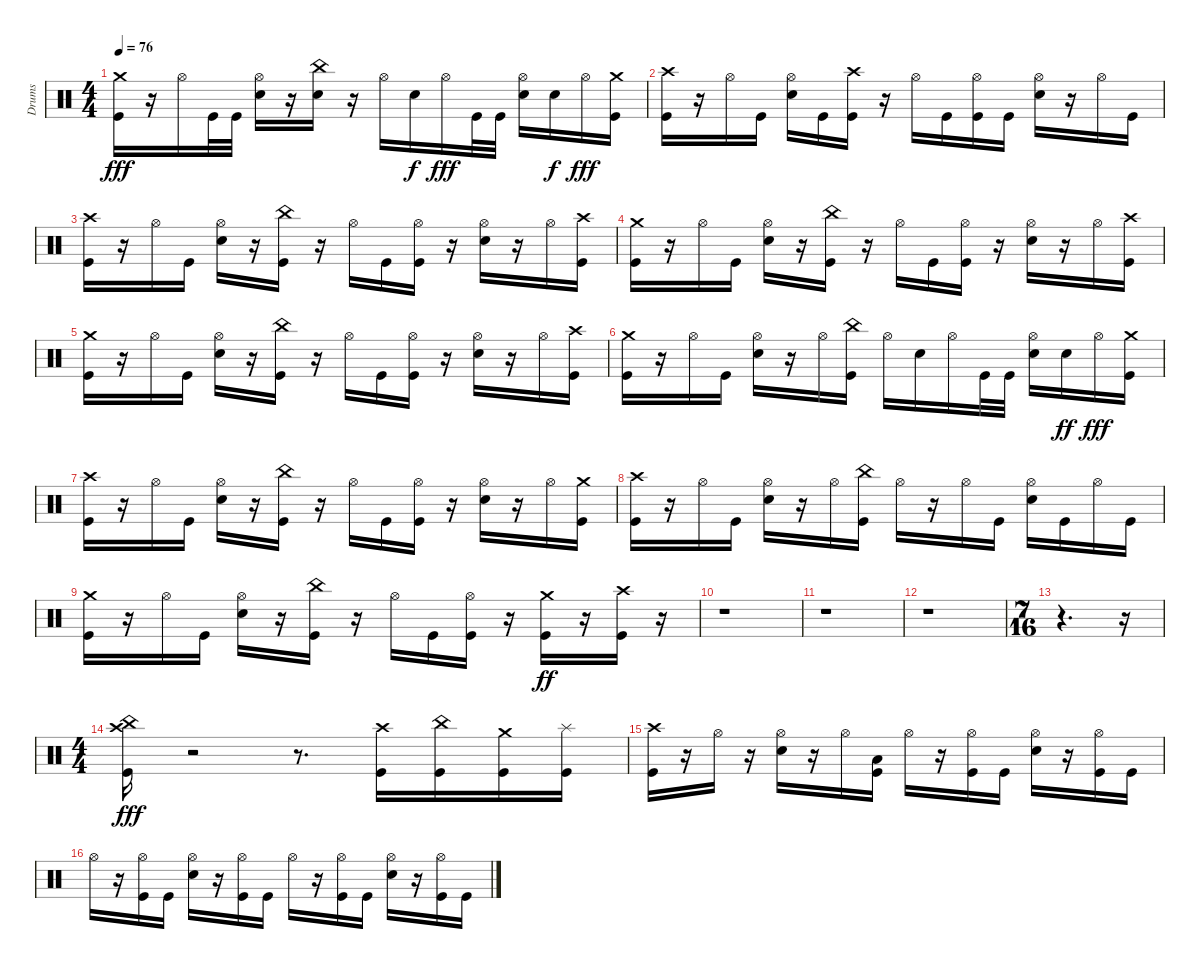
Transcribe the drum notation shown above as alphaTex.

\track ("Drums" "Drums") {instrument percussion}
\staff {score}
\articulation defaults
\ts (4 4)
\tempo 76
\clef neutral
\ks c
("Kick (hit)" "Crash medium (hit)").16{dy fff} r.16 "Hi-Hat (open)".16 "Kick (hit)".32 "Kick (hit)".32 ("Electric Snare (hit)" "Hi-Hat (open)").16 r.16 ("China (hit)" "Electric Snare (hit)").16 r.16 "Hi-Hat (open)".16 "Electric Snare (hit)".16{dy f} "Hi-Hat (open)".16{dy fff} "Kick (hit)".32 "Kick (hit)".32 ("Electric Snare (hit)" "Hi-Hat (open)").16 "Electric Snare (hit)".16{dy f} "Hi-Hat (open)".16{dy fff} ("Crash medium (hit)" "Kick (hit)").16 |
("Crash high (hit)" "Kick (hit)").16 r.16 "Hi-Hat (open)".16 "Kick (hit)".16 ("Hi-Hat (open)" "Electric Snare (hit)").16 "Kick (hit)".16 ("Kick (hit)" "Crash high (hit)").16 r.16 "Hi-Hat (open)".16 "Kick (hit)".16 ("Hi-Hat (open)" "Kick (hit)").16 "Kick (hit)".16 ("Hi-Hat (open)" "Electric Snare (hit)").16 r.16 "Hi-Hat (open)".16 "Kick (hit)".16 |
("Crash high (hit)" "Kick (hit)").16 r.16 "Hi-Hat (open)".16 "Kick (hit)".16 ("Hi-Hat (open)" "Electric Snare (hit)").16 r.16 ("China (hit)" "Kick (hit)").16 r.16 "Hi-Hat (open)".16 "Kick (hit)".16 ("Hi-Hat (open)" "Kick (hit)").16 r.16 ("Hi-Hat (open)" "Electric Snare (hit)").16 r.16 "Hi-Hat (open)".16 ("Crash high (hit)" "Kick (hit)").16 |
("Crash medium (hit)" "Kick (hit)").16 r.16 "Hi-Hat (open)".16 "Kick (hit)".16 ("Electric Snare (hit)" "Hi-Hat (open)").16 r.16 ("Kick (hit)" "China (hit)").16 r.16 "Hi-Hat (open)".16 "Kick (hit)".16 ("Kick (hit)" "Hi-Hat (open)").16 r.16 ("Electric Snare (hit)" "Hi-Hat (open)").16 r.16 "Hi-Hat (open)".16 ("Crash high (hit)" "Kick (hit)").16 |
("Crash medium (hit)" "Kick (hit)").16 r.16 "Hi-Hat (open)".16 "Kick (hit)".16 ("Electric Snare (hit)" "Hi-Hat (open)").16 r.16 ("Kick (hit)" "China (hit)").16 r.16 "Hi-Hat (open)".16 "Kick (hit)".16 ("Kick (hit)" "Hi-Hat (open)").16 r.16 ("Electric Snare (hit)" "Hi-Hat (open)").16 r.16 "Hi-Hat (open)".16 ("Kick (hit)" "Crash high (hit)").16 |
("Crash medium (hit)" "Kick (hit)").16 r.16 "Hi-Hat (open)".16 "Kick (hit)".16 ("Electric Snare (hit)" "Hi-Hat (open)").16 r.16 "Hi-Hat (open)".16 ("China (hit)" "Kick (hit)").16 "Hi-Hat (open)".16 "Electric Snare (hit)".16 "Hi-Hat (open)".16 "Kick (hit)".32 "Kick (hit)".32 ("Electric Snare (hit)" "Hi-Hat (open)").16 "Electric Snare (hit)".16{dy ff} "Hi-Hat (open)".16{dy fff} ("Crash medium (hit)" "Kick (hit)").16 |
("Kick (hit)" "Crash high (hit)").16 r.16 "Hi-Hat (open)".16 "Kick (hit)".16 ("Electric Snare (hit)" "Hi-Hat (open)").16 r.16 ("Kick (hit)" "China (hit)").16 r.16 "Hi-Hat (open)".16 "Kick (hit)".16 ("Kick (hit)" "Hi-Hat (open)").16 r.16 ("Electric Snare (hit)" "Hi-Hat (open)").16 r.16 "Hi-Hat (open)".16 ("Crash medium (hit)" "Kick (hit)").16 |
("Kick (hit)" "Crash high (hit)").16 r.16 "Hi-Hat (open)".16 "Kick (hit)".16 ("Electric Snare (hit)" "Hi-Hat (open)").16 r.16 "Hi-Hat (open)".16 ("Kick (hit)" "China (hit)").16 "Hi-Hat (open)".16 r.16 "Hi-Hat (open)".16 "Kick (hit)".16 ("Electric Snare (hit)" "Hi-Hat (open)").16 "Kick (hit)".16 "Hi-Hat (open)".16 "Kick (hit)".16 |
("Kick (hit)" "Crash medium (hit)").16 r.16 "Hi-Hat (open)".16 "Kick (hit)".16 ("Electric Snare (hit)" "Hi-Hat (open)").16 r.16 ("Kick (hit)" "China (hit)").16 r.16 "Hi-Hat (open)".16 "Kick (hit)".16 ("Kick (hit)" "Hi-Hat (open)").16 r.16 ("Crash medium (hit)" "Kick (hit)").16{dy ff} r.16 ("Crash high (hit)" "Kick (hit)").16 r.16 |
r.1 |
r.1 |
r.1 |
\ts (7 16)
r.4{d} r.16 |
\ts (4 4)
("Crash high (hit)" "China (hit)" "Kick (hit)").16{dy fff volume 16} r.2 r.8{d} ("Crash high (hit)" "Kick (hit)").16 ("China (hit)" "Kick (hit)").16 ("Crash medium (hit)" "Kick (hit)").16 ("Splash (hit)" "Kick (hit)").16 |
("Crash high (hit)" "Kick (hit)").16 r.16 "Hi-Hat (open)".16 r.16 ("Hi-Hat (open)" "Electric Snare (hit)").16 r.16 "Hi-Hat (open)".16 ("Kick (hit)" "Low Floor Tom (hit)").16 "Hi-Hat (open)".16 r.16 ("Kick (hit)" "Hi-Hat (open)").16 "Kick (hit)".16 ("Electric Snare (hit)" "Hi-Hat (open)").16 r.16 ("Kick (hit)" "Hi-Hat (open)").16 "Kick (hit)".16 |
"Hi-Hat (open)".16 r.16 ("Kick (hit)" "Hi-Hat (open)").16 "Kick (hit)".16 ("Hi-Hat (open)" "Electric Snare (hit)").16 r.16 ("Kick (hit)" "Hi-Hat (open)").16 "Kick (hit)".16 "Hi-Hat (open)".16 r.16 ("Kick (hit)" "Hi-Hat (open)").16 "Kick (hit)".16 ("Electric Snare (hit)" "Hi-Hat (open)").16 r.16 ("Kick (hit)" "Hi-Hat (open)").16 "Kick (hit)".16
